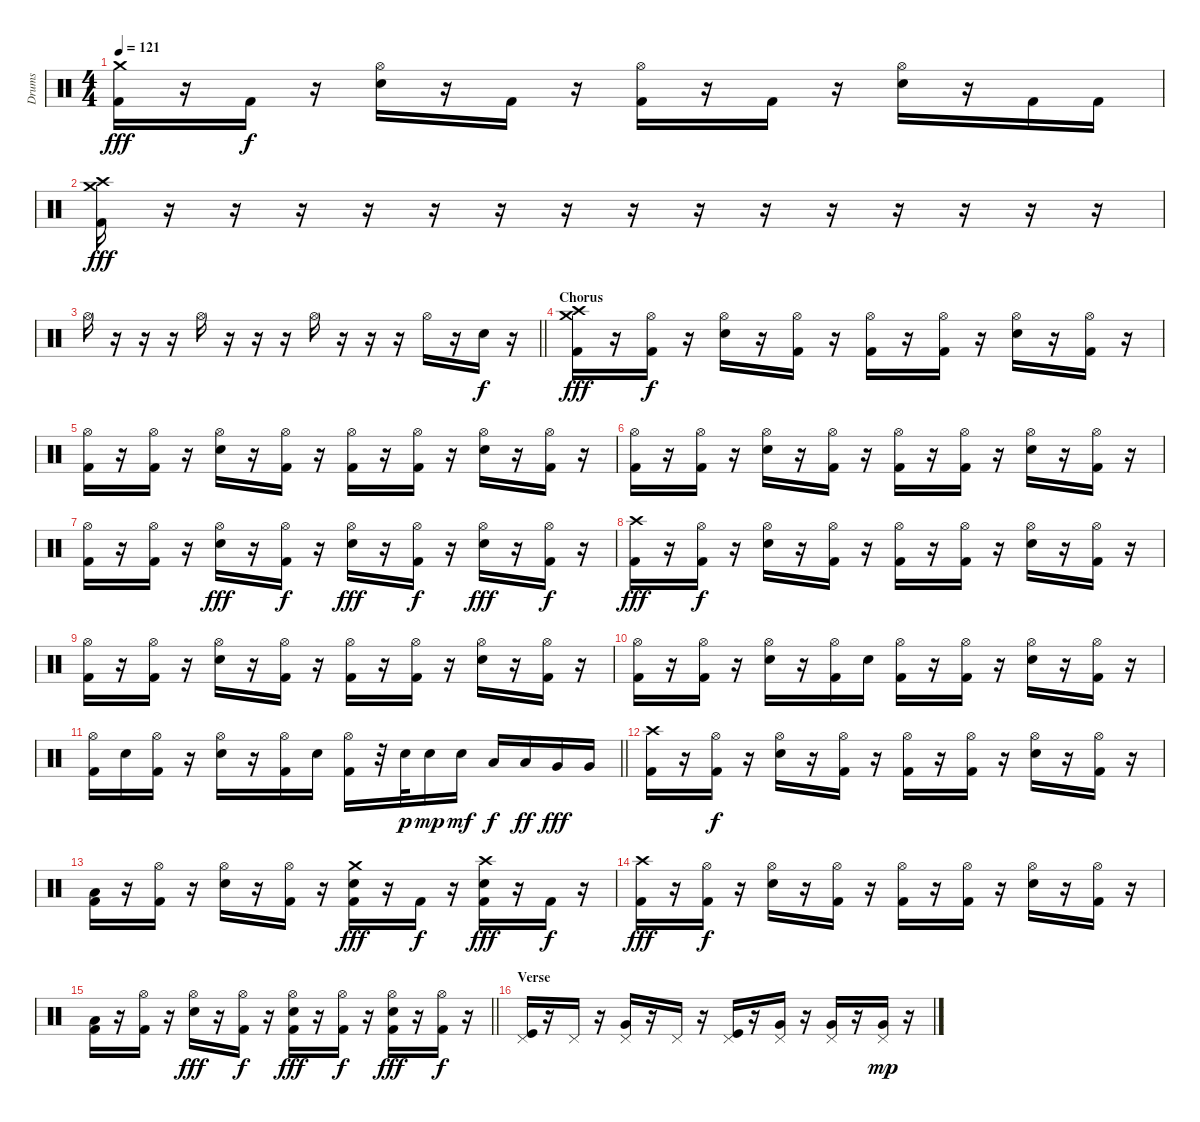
\track ("Drums" "Drums") {instrument percussion}
\staff {score}
\articulation defaults
\ts (4 4)
\tempo 121
\clef neutral
\ks c
("Crash medium (hit)" "Kick (hit) 2").16{dy fff} r.16 "Kick (hit) 2".16{dy f} r.16 ("Hi-Hat (open)" "Electric Snare (hit)").16 r.16 "Kick (hit) 2".16 r.16 ("Hi-Hat (open)" "Kick (hit) 2").16 r.16 "Kick (hit) 2".16 r.16 ("Hi-Hat (open)" "Electric Snare (hit)").16 r.16 "Kick (hit) 2".16 "Kick (hit) 2".16 |
("Crash high (hit)" "Crash medium (hit)" "Kick (hit) 2").16{dy fff} r.16 r.16 r.16 r.16 r.16 r.16 r.16 r.16 r.16 r.16 r.16 r.16 r.16 r.16 r.16 |
\barLineRight lightlight "Hi-Hat (open)".16
r.16 r.16 r.16 "Hi-Hat (open)".16 r.16 r.16 r.16 "Hi-Hat (open)".16 r.16 r.16 r.16 "Hi-Hat (open)".16 r.16 "Electric Snare (hit)".16{dy f} r.16 |
\section ("" "Chorus")
("Crash high (hit)" "Crash medium (hit)" "Kick (hit) 2").16{dy fff} r.16 ("Hi-Hat (open)" "Kick (hit) 2").16{dy f} r.16 ("Hi-Hat (open)" "Electric Snare (hit)").16 r.16 ("Hi-Hat (open)" "Kick (hit) 2").16 r.16 ("Hi-Hat (open)" "Kick (hit) 2").16 r.16 ("Hi-Hat (open)" "Kick (hit) 2").16 r.16 ("Hi-Hat (open)" "Electric Snare (hit)").16 r.16 ("Hi-Hat (open)" "Kick (hit) 2").16 r.16 |
("Hi-Hat (open)" "Kick (hit) 2").16 r.16 ("Hi-Hat (open)" "Kick (hit) 2").16 r.16 ("Hi-Hat (open)" "Electric Snare (hit)").16 r.16 ("Hi-Hat (open)" "Kick (hit) 2").16 r.16 ("Hi-Hat (open)" "Kick (hit) 2").16 r.16 ("Hi-Hat (open)" "Kick (hit) 2").16 r.16 ("Hi-Hat (open)" "Electric Snare (hit)").16 r.16 ("Hi-Hat (open)" "Kick (hit) 2").16 r.16 |
("Hi-Hat (open)" "Kick (hit) 2").16 r.16 ("Hi-Hat (open)" "Kick (hit) 2").16 r.16 ("Hi-Hat (open)" "Electric Snare (hit)").16 r.16 ("Hi-Hat (open)" "Kick (hit) 2").16 r.16 ("Hi-Hat (open)" "Kick (hit) 2").16 r.16 ("Hi-Hat (open)" "Kick (hit) 2").16 r.16 ("Hi-Hat (open)" "Electric Snare (hit)").16 r.16 ("Hi-Hat (open)" "Kick (hit) 2").16 r.16 |
("Hi-Hat (open)" "Kick (hit) 2").16 r.16 ("Hi-Hat (open)" "Kick (hit) 2").16 r.16 ("Hi-Hat (open)" "Electric Snare (hit)").16{dy fff} r.16 ("Hi-Hat (open)" "Kick (hit) 2").16{dy f} r.16 ("Hi-Hat (open)" "Electric Snare (hit)").16{dy fff} r.16 ("Hi-Hat (open)" "Kick (hit) 2").16{dy f} r.16 ("Hi-Hat (open)" "Electric Snare (hit)").16{dy fff} r.16 ("Hi-Hat (open)" "Kick (hit) 2").16{dy f} r.16 |
("Crash high (hit)" "Kick (hit) 2").16{dy fff} r.16 ("Hi-Hat (open)" "Kick (hit) 2").16{dy f} r.16 ("Hi-Hat (open)" "Electric Snare (hit)").16 r.16 ("Hi-Hat (open)" "Kick (hit) 2").16 r.16 ("Hi-Hat (open)" "Kick (hit) 2").16 r.16 ("Hi-Hat (open)" "Kick (hit) 2").16 r.16 ("Hi-Hat (open)" "Electric Snare (hit)").16 r.16 ("Hi-Hat (open)" "Kick (hit) 2").16 r.16 |
("Hi-Hat (open)" "Kick (hit) 2").16 r.16 ("Hi-Hat (open)" "Kick (hit) 2").16 r.16 ("Hi-Hat (open)" "Electric Snare (hit)").16 r.16 ("Hi-Hat (open)" "Kick (hit) 2").16 r.16 ("Hi-Hat (open)" "Kick (hit) 2").16 r.16 ("Hi-Hat (open)" "Kick (hit) 2").16 r.16 ("Hi-Hat (open)" "Electric Snare (hit)").16 r.16 ("Hi-Hat (open)" "Kick (hit) 2").16 r.16 |
("Hi-Hat (open)" "Kick (hit) 2").16 r.16 ("Hi-Hat (open)" "Kick (hit) 2").16 r.16 ("Hi-Hat (open)" "Electric Snare (hit)").16 r.16 ("Hi-Hat (open)" "Kick (hit) 2").16 "Electric Snare (hit)".16 ("Hi-Hat (open)" "Kick (hit) 2").16 r.16 ("Hi-Hat (open)" "Kick (hit) 2").16 r.16 ("Hi-Hat (open)" "Electric Snare (hit)").16 r.16 ("Hi-Hat (open)" "Kick (hit) 2").16 r.16 |
\barLineRight lightlight
("Hi-Hat (open)" "Kick (hit) 2").16 "Electric Snare (hit)".16 ("Hi-Hat (open)" "Kick (hit) 2").16 r.16 ("Hi-Hat (open)" "Electric Snare (hit)").16 r.16 ("Hi-Hat (open)" "Kick (hit) 2").16 "Electric Snare (hit)".16 ("Hi-Hat (open)" "Kick (hit) 2").16 r.32 "Electric Snare (hit)".32{dy p} "Electric Snare (hit)".16{dy mp} "Electric Snare (hit)".16{dy mf} "Low Tom (hit)".16{dy f} "Low Tom (hit)".16{dy ff} "Very Low Tom (hit)".16{dy fff} "Very Low Tom (hit)".16 |
("Crash high (hit)" "Kick (hit) 2").16 r.16 ("Hi-Hat (open)" "Kick (hit) 2").16{dy f} r.16 ("Hi-Hat (open)" "Electric Snare (hit)").16 r.16 ("Hi-Hat (open)" "Kick (hit) 2").16 r.16 ("Hi-Hat (open)" "Kick (hit) 2").16 r.16 ("Hi-Hat (open)" "Kick (hit) 2").16 r.16 ("Hi-Hat (open)" "Electric Snare (hit)").16 r.16 ("Hi-Hat (open)" "Kick (hit) 2").16 r.16 |
("Low Tom (hit)" "Kick (hit) 2").16 r.16 ("Hi-Hat (open)" "Kick (hit) 2").16 r.16 ("Hi-Hat (open)" "Electric Snare (hit)").16 r.16 ("Hi-Hat (open)" "Kick (hit) 2").16 r.16 ("Crash medium (hit)" "Electric Snare (hit)" "Kick (hit) 2").16{dy fff} r.16 "Kick (hit) 2".16{dy f} r.16 ("Crash high (hit)" "Electric Snare (hit)" "Kick (hit) 2").16{dy fff} r.16 "Kick (hit) 2".16{dy f} r.16 |
("Crash high (hit)" "Kick (hit) 2").16{dy fff} r.16 ("Hi-Hat (open)" "Kick (hit) 2").16{dy f} r.16 ("Hi-Hat (open)" "Electric Snare (hit)").16 r.16 ("Hi-Hat (open)" "Kick (hit) 2").16 r.16 ("Hi-Hat (open)" "Kick (hit) 2").16 r.16 ("Hi-Hat (open)" "Kick (hit) 2").16 r.16 ("Hi-Hat (open)" "Electric Snare (hit)").16 r.16 ("Hi-Hat (open)" "Kick (hit) 2").16 r.16 |
\barLineRight lightlight
("Low Tom (hit)" "Kick (hit) 2").16 r.16 ("Hi-Hat (open)" "Kick (hit) 2").16 r.16 ("Hi-Hat (open)" "Electric Snare (hit)").16{dy fff} r.16 ("Hi-Hat (open)" "Kick (hit) 2").16{dy f} r.16 ("Hi-Hat (open)" "Electric Snare (hit)" "Kick (hit) 2").16{dy fff} r.16 ("Hi-Hat (open)" "Kick (hit) 2").16{dy f} r.16 ("Hi-Hat (open)" "Electric Snare (hit)" "Kick (hit) 2").16{dy fff} r.16 ("Hi-Hat (open)" "Kick (hit) 2").16{dy f} r.16 |
\section ("" "Verse")
("Pedal Hi-Hat (hit)" "Kick (hit)").16{volume 12} r.16 "Pedal Hi-Hat (hit)".16 r.16 ("Pedal Hi-Hat (hit)" "Very Low Tom (hit)").16 r.16 "Pedal Hi-Hat (hit)".16 r.16 ("Pedal Hi-Hat (hit)" "Kick (hit)").16 r.16 ("Pedal Hi-Hat (hit)" "Very Low Tom (hit)").16 r.16 ("Pedal Hi-Hat (hit)" "Very Low Tom (hit)").16 r.16 ("Pedal Hi-Hat (hit)" "Very Low Tom (hit)").16{dy mp} r.16
